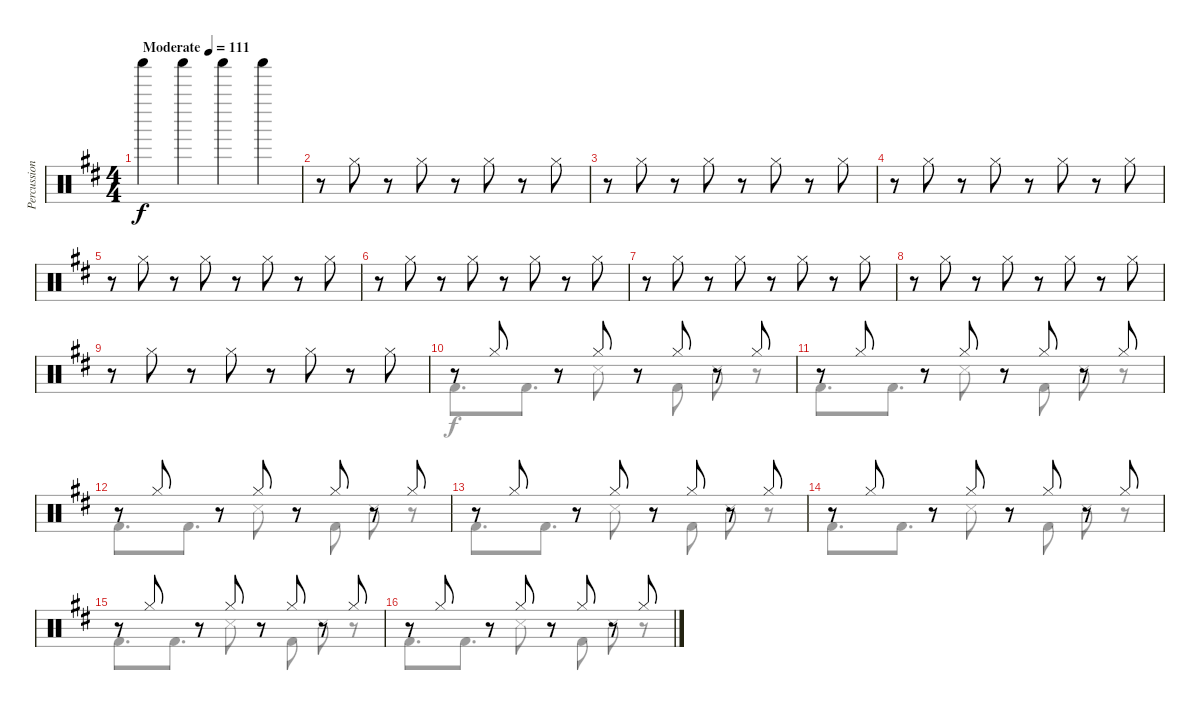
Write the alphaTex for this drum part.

\track ("Percussion" "Percussion") {instrument percussion}
\staff {score}
\articulation defaults
\voice
\ts (4 4)
\tempo (111 "Moderate")
\clef neutral
\ks d "Shaker (hit)".4{dy f} "Shaker (hit)".4 "Shaker (hit)".4 "Shaker (hit)".4
|
r.8 "Hi-Hat (closed)".8 r.8 "Hi-Hat (closed)".8 r.8 "Hi-Hat (closed)".8 r.8 "Hi-Hat (closed)".8 |
r.8 "Hi-Hat (closed)".8 r.8 "Hi-Hat (closed)".8 r.8 "Hi-Hat (closed)".8 r.8 "Hi-Hat (closed)".8 |
r.8 "Hi-Hat (closed)".8 r.8 "Hi-Hat (closed)".8 r.8 "Hi-Hat (closed)".8 r.8 "Hi-Hat (closed)".8 |
r.8 "Hi-Hat (closed)".8 r.8 "Hi-Hat (closed)".8 r.8 "Hi-Hat (closed)".8 r.8 "Hi-Hat (closed)".8 |
r.8 "Hi-Hat (closed)".8 r.8 "Hi-Hat (closed)".8 r.8 "Hi-Hat (closed)".8 r.8 "Hi-Hat (closed)".8 |
r.8 "Hi-Hat (closed)".8 r.8 "Hi-Hat (closed)".8 r.8 "Hi-Hat (closed)".8 r.8 "Hi-Hat (closed)".8 |
r.8 "Hi-Hat (closed)".8 r.8 "Hi-Hat (closed)".8 r.8 "Hi-Hat (closed)".8 r.8 "Hi-Hat (closed)".8 |
r.8 "Hi-Hat (closed)".8 r.8 "Hi-Hat (closed)".8 r.8 "Hi-Hat (closed)".8 r.8 "Hi-Hat (closed)".8 |
r.8 "Hi-Hat (closed)".8 r.8 "Hi-Hat (closed)".8 r.8 "Hi-Hat (closed)".8 r.8 "Hi-Hat (closed)".8 |
r.8 "Hi-Hat (closed)".8 r.8 "Hi-Hat (closed)".8 r.8 "Hi-Hat (closed)".8 r.8 "Hi-Hat (closed)".8 |
r.8 "Hi-Hat (closed)".8 r.8 "Hi-Hat (closed)".8 r.8 "Hi-Hat (closed)".8 r.8 "Hi-Hat (closed)".8 |
r.8 "Hi-Hat (closed)".8 r.8 "Hi-Hat (closed)".8 r.8 "Hi-Hat (closed)".8 r.8 "Hi-Hat (closed)".8 |
r.8 "Hi-Hat (closed)".8 r.8 "Hi-Hat (closed)".8 r.8 "Hi-Hat (closed)".8 r.8 "Hi-Hat (closed)".8 |
r.8 "Hi-Hat (closed)".8 r.8 "Hi-Hat (closed)".8 r.8 "Hi-Hat (closed)".8 r.8 "Hi-Hat (closed)".8 |
r.8 "Hi-Hat (closed)".8 r.8 "Hi-Hat (closed)".8 r.8 "Hi-Hat (closed)".8 r.8 "Hi-Hat (closed)".8
\voice
\clef neutral
\ottava regular
\simile none
\ks d
|
|
|
|
|
|
|
|
|
"Kick (hit) 2".8{d} "Kick (hit) 2".8{d} "Snare (side stick) 3".8 r.8 "Kick (hit) 2".8 "Snare (side stick) 3".8 r.8 |
"Kick (hit) 2".8{d} "Kick (hit) 2".8{d} "Snare (side stick) 3".8 r.8 "Kick (hit) 2".8 "Snare (side stick) 3".8 r.8 |
"Kick (hit) 2".8{d} "Kick (hit) 2".8{d} "Snare (side stick) 3".8 r.8 "Kick (hit) 2".8 "Snare (side stick) 3".8 r.8 |
"Kick (hit) 2".8{d} "Kick (hit) 2".8{d} "Snare (side stick) 3".8 r.8 "Kick (hit) 2".8 "Snare (side stick) 3".8 r.8 |
"Kick (hit) 2".8{d} "Kick (hit) 2".8{d} "Snare (side stick) 3".8 r.8 "Kick (hit) 2".8 "Snare (side stick) 3".8 r.8 |
"Kick (hit) 2".8{d} "Kick (hit) 2".8{d} "Snare (side stick) 3".8 r.8 "Kick (hit) 2".8 "Snare (side stick) 3".8 r.8 |
"Kick (hit) 2".8{d} "Kick (hit) 2".8{d} "Snare (side stick) 3".8 r.8 "Kick (hit) 2".8 "Snare (side stick) 3".8 r.8
